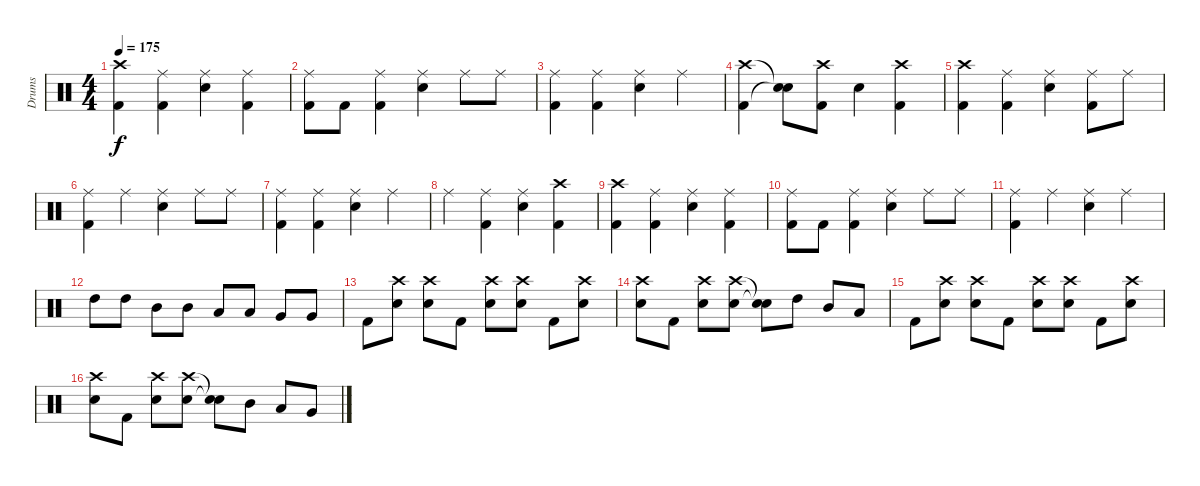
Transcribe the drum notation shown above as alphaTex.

\track ("Drums" "Drums") {instrument percussion}
\staff {score}
\articulation defaults
\ts (4 4)
\tempo 175
\clef neutral
\ks c
("Crash high (hit)" "Kick (hit) 2").4{dy f} ("Ride (middle)" "Kick (hit) 2").4 ("Ride (middle)" "Electric Snare (hit)").4 ("Ride (middle)" "Kick (hit) 2").4 |
("Ride (middle)" "Kick (hit) 2").8 "Kick (hit) 2".8 ("Ride (middle)" "Kick (hit) 2").4 ("Ride (middle)" "Electric Snare (hit)").4 "Ride (middle)".8 "Ride (middle)".8 |
("Ride (middle)" "Kick (hit) 2").4 ("Ride (middle)" "Kick (hit) 2").4 ("Ride (middle)" "Electric Snare (hit)").4 "Ride (middle)".4 |
("Crash high (hit)" "Kick (hit) 2").4 ("Snare (hit)"{t} "Snare (hit)"{t}).8 ("Crash high (hit)" "Kick (hit) 2").8 "Electric Snare (hit)".4 ("Crash high (hit)" "Kick (hit) 2").4 |
("Crash high (hit)" "Kick (hit) 2").4 ("Ride (middle)" "Kick (hit) 2").4 ("Ride (middle)" "Electric Snare (hit)").4 ("Ride (middle)" "Kick (hit) 2").8 "Ride (middle)".8 |
("Ride (middle)" "Kick (hit) 2").4 "Ride (middle)".4 ("Ride (middle)" "Electric Snare (hit)").4 "Ride (middle)".8 "Ride (middle)".8 |
("Ride (middle)" "Kick (hit) 2").4 ("Ride (middle)" "Kick (hit) 2").4 ("Ride (middle)" "Electric Snare (hit)").4 "Ride (middle)".4 |
"Ride (middle)".4 ("Ride (middle)" "Kick (hit) 2").4 ("Ride (middle)" "Electric Snare (hit)").4 ("Crash high (hit)" "Kick (hit) 2").4 |
("Crash high (hit)" "Kick (hit) 2").4 ("Ride (middle)" "Kick (hit) 2").4 ("Ride (middle)" "Electric Snare (hit)").4 ("Ride (middle)" "Kick (hit) 2").4 |
("Ride (middle)" "Kick (hit) 2").8 "Kick (hit) 2".8 ("Ride (middle)" "Kick (hit) 2").4 ("Ride (middle)" "Electric Snare (hit)").4 "Ride (middle)".8 "Ride (middle)".8 |
("Ride (middle)" "Kick (hit) 2").4 "Ride (middle)".4 ("Ride (middle)" "Electric Snare (hit)").4 "Ride (middle)".4 |
"High Tom (hit)".8 "High Tom (hit)".8 "Mid Tom (hit)".8 "Mid Tom (hit)".8 "Low Tom (hit)".8 "Low Tom (hit)".8 "Very Low Tom (hit)".8 "Very Low Tom (hit)".8 |
"Kick (hit) 2".8 ("Crash high (hit)" "Electric Snare (hit)").8 ("Crash high (hit)" "Electric Snare (hit)").8 "Kick (hit) 2".8 ("Crash high (hit)" "Electric Snare (hit)").8 ("Crash high (hit)" "Electric Snare (hit)").8 "Kick (hit) 2".8 ("Crash high (hit)" "Electric Snare (hit)").8 |
("Crash high (hit)" "Electric Snare (hit)").8 "Kick (hit) 2".8 ("Crash high (hit)" "Electric Snare (hit)").8 ("Crash high (hit)" "Electric Snare (hit)").8 ("Snare (hit)"{t} "Snare (hit)"{t}).8 "High Tom (hit)".8 "Mid Tom (hit)".8 "Low Tom (hit)".8 |
"Kick (hit) 2".8 ("Crash high (hit)" "Electric Snare (hit)").8 ("Crash high (hit)" "Electric Snare (hit)").8 "Kick (hit) 2".8 ("Crash high (hit)" "Electric Snare (hit)").8 ("Crash high (hit)" "Electric Snare (hit)").8 "Kick (hit) 2".8 ("Crash high (hit)" "Electric Snare (hit)").8 |
("Crash high (hit)" "Electric Snare (hit)").8 "Kick (hit) 2".8 ("Crash high (hit)" "Electric Snare (hit)").8 ("Crash high (hit)" "Electric Snare (hit)").8 ("Snare (hit)"{t} "Snare (hit)"{t}).8 "Mid Tom (hit)".8 "Low Tom (hit)".8 "Very Low Tom (hit)".8
